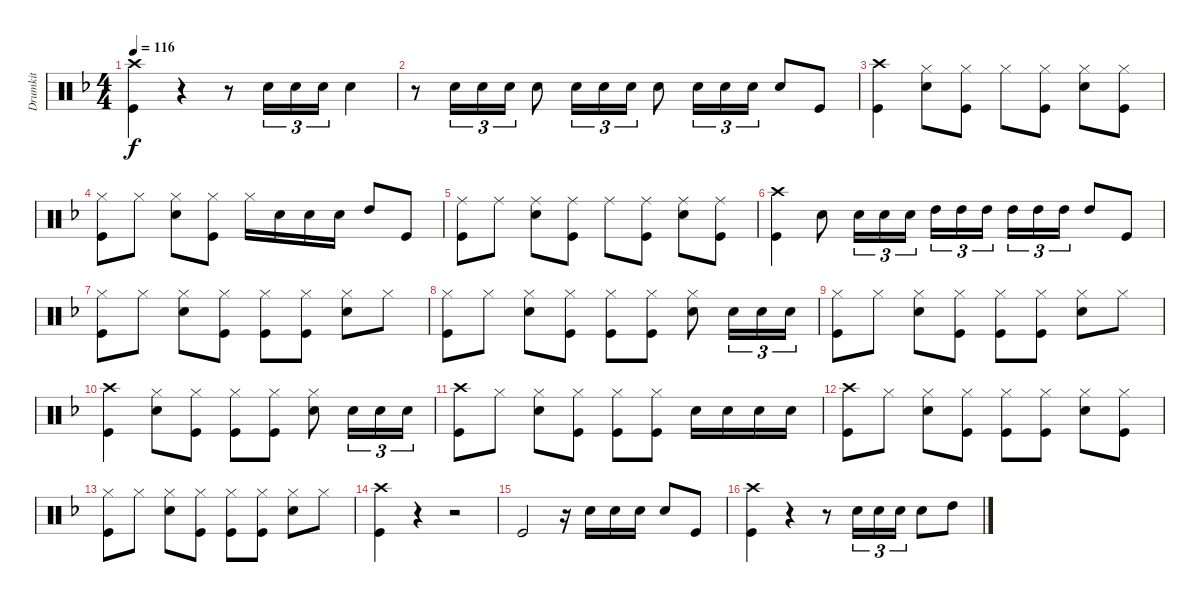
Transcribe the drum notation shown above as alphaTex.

\track ("Drumkit" "Drumkit") {instrument percussion}
\staff {score}
\articulation defaults
\ts (4 4)
\tempo 116
\clef neutral
\ks dminor
("Crash high (hit)" "Kick (hit)").4{dy f} r.4 r.8 "Snare (hit) 2".16{tu (3 2)} "Snare (hit) 2".16{tu (3 2)} "Snare (hit) 2".16{tu (3 2)} "Snare (hit) 2".4 |
r.8 "Snare (hit) 2".16{tu (3 2)} "Snare (hit) 2".16{tu (3 2)} "Snare (hit) 2".16{tu (3 2)} "Snare (hit) 2".8 "Snare (hit) 2".16{tu (3 2)} "Snare (hit) 2".16{tu (3 2)} "Snare (hit) 2".16{tu (3 2)} "Snare (hit) 2".8 "Snare (hit) 2".16{tu (3 2)} "Snare (hit) 2".16{tu (3 2)} "Snare (hit) 2".16{tu (3 2)} "Snare (hit) 2".8 "Kick (hit)".8 |
("Crash high (hit)" "Kick (hit)").4 ("Hi-Hat (closed)" "Snare (hit) 2").8 ("Hi-Hat (closed)" "Kick (hit)").8 "Hi-Hat (closed)".8 ("Hi-Hat (closed)" "Kick (hit)").8 ("Hi-Hat (closed)" "Snare (hit) 2").8 ("Hi-Hat (closed)" "Kick (hit)").8 |
("Hi-Hat (closed)" "Kick (hit)").8 "Hi-Hat (closed)".8 ("Hi-Hat (closed)" "Snare (hit) 2").8 ("Hi-Hat (closed)" "Kick (hit)").8 "Hi-Hat (closed)".16 "Snare (hit) 2".16 "Snare (hit) 2".16 "Snare (hit) 2".16 "High Tom (hit)".8 "Kick (hit)".8 |
("Ride (middle)" "Kick (hit)").8 "Ride (middle)".8 ("Ride (middle)" "Snare (hit) 2").8 ("Ride (middle)" "Kick (hit)").8 "Ride (middle)".8 ("Ride (middle)" "Kick (hit)").8 ("Ride (middle)" "Snare (hit) 2").8 ("Ride (middle)" "Kick (hit)").8 |
("Crash high (hit)" "Kick (hit)").4 "Snare (hit) 2".8 "Snare (hit) 2".16{tu (3 2)} "Snare (hit) 2".16{tu (3 2)} "Snare (hit) 2".16{tu (3 2)} "High Tom (hit)".16{tu (3 2)} "High Tom (hit)".16{tu (3 2)} "High Tom (hit)".16{tu (3 2)} "High Tom (hit)".16{tu (3 2)} "High Tom (hit)".16{tu (3 2)} "High Tom (hit)".16{tu (3 2)} "High Tom (hit)".8 "Kick (hit)".8 |
("Hi-Hat (closed)" "Kick (hit)").8 "Hi-Hat (closed)".8 ("Hi-Hat (closed)" "Snare (hit) 2").8 ("Hi-Hat (closed)" "Kick (hit)").8 ("Hi-Hat (closed)" "Kick (hit)").8 ("Hi-Hat (closed)" "Kick (hit)").8 ("Hi-Hat (closed)" "Snare (hit) 2").8 "Hi-Hat (closed)".8 |
("Hi-Hat (closed)" "Kick (hit)").8 "Hi-Hat (closed)".8 ("Hi-Hat (closed)" "Snare (hit) 2").8 ("Hi-Hat (closed)" "Kick (hit)").8 ("Hi-Hat (closed)" "Kick (hit)").8 ("Hi-Hat (closed)" "Kick (hit)").8 ("Hi-Hat (closed)" "Snare (hit) 2").8 "Snare (hit) 2".16{tu (3 2)} "Snare (hit) 2".16{tu (3 2)} "Snare (hit) 2".16{tu (3 2)} |
("Hi-Hat (closed)" "Kick (hit)").8 "Hi-Hat (closed)".8 ("Hi-Hat (closed)" "Snare (hit) 2").8 ("Hi-Hat (closed)" "Kick (hit)").8 ("Hi-Hat (closed)" "Kick (hit)").8 ("Hi-Hat (closed)" "Kick (hit)").8 ("Hi-Hat (closed)" "Snare (hit) 2").8 "Hi-Hat (closed)".8 |
("Crash high (hit)" "Kick (hit)").4 ("Hi-Hat (closed)" "Snare (hit) 2").8 ("Hi-Hat (closed)" "Kick (hit)").8 ("Hi-Hat (closed)" "Kick (hit)").8 ("Hi-Hat (closed)" "Kick (hit)").8 ("Hi-Hat (closed)" "Snare (hit) 2").8 "Snare (hit) 2".16{tu (3 2)} "Snare (hit) 2".16{tu (3 2)} "Snare (hit) 2".16{tu (3 2)} |
("Crash high (hit)" "Kick (hit)").8 "Hi-Hat (closed)".8 ("Hi-Hat (closed)" "Snare (hit) 2").8 ("Hi-Hat (closed)" "Kick (hit)").8 ("Hi-Hat (closed)" "Kick (hit)").8 ("Hi-Hat (closed)" "Kick (hit)").8 "Snare (hit) 2".16 "Snare (hit) 2".16 "Snare (hit) 2".16 "Snare (hit) 2".16 |
("Crash high (hit)" "Kick (hit)").8 "Hi-Hat (closed)".8 ("Hi-Hat (closed)" "Snare (hit) 2").8 ("Hi-Hat (closed)" "Kick (hit)").8 ("Hi-Hat (closed)" "Kick (hit)").8 ("Hi-Hat (closed)" "Kick (hit)").8 ("Hi-Hat (closed)" "Snare (hit) 2").8 ("Hi-Hat (closed)" "Kick (hit)").8 |
("Hi-Hat (closed)" "Kick (hit)").8 "Hi-Hat (closed)".8 ("Hi-Hat (closed)" "Snare (hit) 2").8 ("Hi-Hat (closed)" "Kick (hit)").8 ("Hi-Hat (closed)" "Kick (hit)").8 ("Hi-Hat (closed)" "Kick (hit)").8 ("Hi-Hat (closed)" "Snare (hit) 2").8 "Hi-Hat (closed)".8 |
("Crash high (hit)" "Kick (hit)").4 r.4 r.2 |
"Kick (hit)".2 r.16 "Snare (hit) 2".16 "Snare (hit) 2".16 "Snare (hit) 2".16 "Snare (hit) 2".8 "Kick (hit)".8 |
("Crash high (hit)" "Kick (hit)").4 r.4 r.8 "Snare (hit) 2".16{tu (3 2)} "Snare (hit) 2".16{tu (3 2)} "Snare (hit) 2".16{tu (3 2)} "Snare (hit) 2".8 "High Tom (hit)".8
